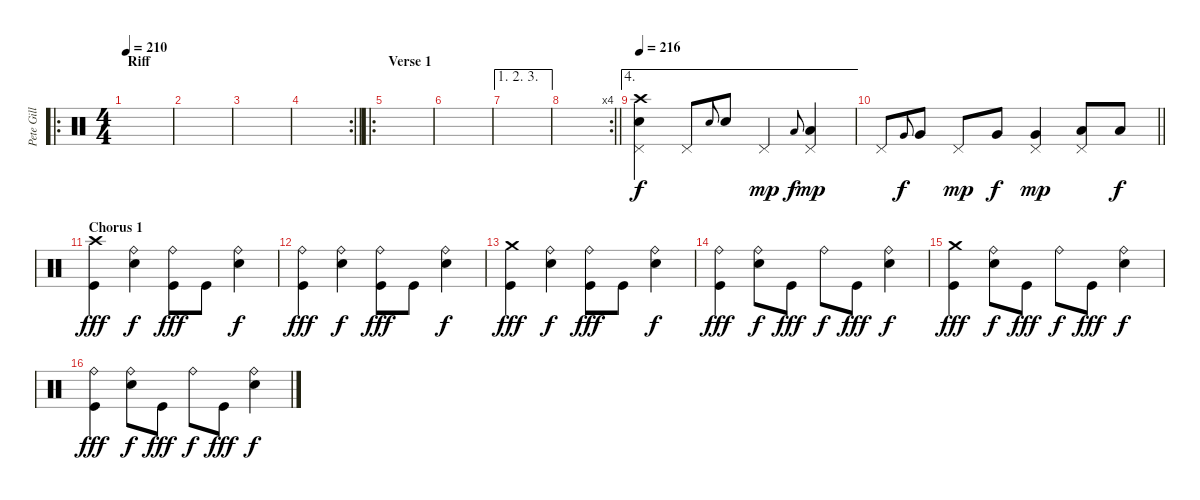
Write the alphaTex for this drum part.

\track ("Pete Gill" "Pete Gill") {instrument percussion}
\staff {score}
\articulation defaults
\ro
\ts (4 4)
\section ("" "Riff")
\tempo 210
\clef neutral
\ks c
|
|
|
\rc 2
\barLineRight lightlight
|
\ro
\section ("" "Verse 1")
|
|
\ae (1 2 3)
|
\rc 4
\barLineRight lightlight
|
\ae 4
\tempo 216
("Crash high (hit)" "Pedal Hi-Hat (hit)" "Electric Snare (hit)").4 "Pedal Hi-Hat (hit)".8 "Electric Snare (hit)".8{gr onbeat dy f} "Electric Snare (hit)".8 "Pedal Hi-Hat (hit)".4{dy mp} "Low Tom (hit)".8{gr onbeat dy f} ("Pedal Hi-Hat (hit)" "Low Tom (hit)").4{dy mp} |
\barLineRight lightlight "Pedal Hi-Hat (hit)".8 "Very Low Tom (hit)".8{gr onbeat dy f} "Very Low Tom (hit)".8 "Pedal Hi-Hat (hit)".8{dy mp} "Very Low Tom (hit)".8{dy f}
("Pedal Hi-Hat (hit)" "Very Low Tom (hit)").4{dy mp} ("Pedal Hi-Hat (hit)" "Low Floor Tom (hit)").8 "Low Floor Tom (hit)".8{dy f} |
\section ("" "Chorus 1")
("Crash high (hit)" "Kick (hit)").4{dy fff} ("Ride (bell)" "Electric Snare (hit)").4{dy f} ("Ride (bell)" "Kick (hit)").8{dy fff} "Kick (hit)".8 ("Ride (bell)" "Electric Snare (hit)").4{dy f} |
("Ride (bell)" "Kick (hit)").4{dy fff} ("Ride (bell)" "Electric Snare (hit)").4{dy f} ("Ride (bell)" "Kick (hit)").8{dy fff} "Kick (hit)".8 ("Ride (bell)" "Electric Snare (hit)").4{dy f} |
("Crash medium (hit)" "Kick (hit)").4{dy fff} ("Ride (bell)" "Electric Snare (hit)").4{dy f} ("Ride (bell)" "Kick (hit)").8{dy fff} "Kick (hit)".8 ("Ride (bell)" "Electric Snare (hit)").4{dy f} |
("Ride (bell)" "Kick (hit)").4{dy fff} ("Ride (bell)" "Electric Snare (hit)").8{dy f} "Kick (hit)".8{dy fff} "Ride (bell)".8{dy f} "Kick (hit)".8{dy fff} ("Ride (bell)" "Electric Snare (hit)").4{dy f} |
("Crash medium (hit)" "Kick (hit)").4{dy fff} ("Ride (bell)" "Electric Snare (hit)").8{dy f} "Kick (hit)".8{dy fff} "Ride (bell)".8{dy f} "Kick (hit)".8{dy fff} ("Ride (bell)" "Electric Snare (hit)").4{dy f} |
("Ride (bell)" "Kick (hit)").4{dy fff} ("Ride (bell)" "Electric Snare (hit)").8{dy f} "Kick (hit)".8{dy fff} "Ride (bell)".8{dy f} "Kick (hit)".8{dy fff} ("Ride (bell)" "Electric Snare (hit)").4{dy f}
